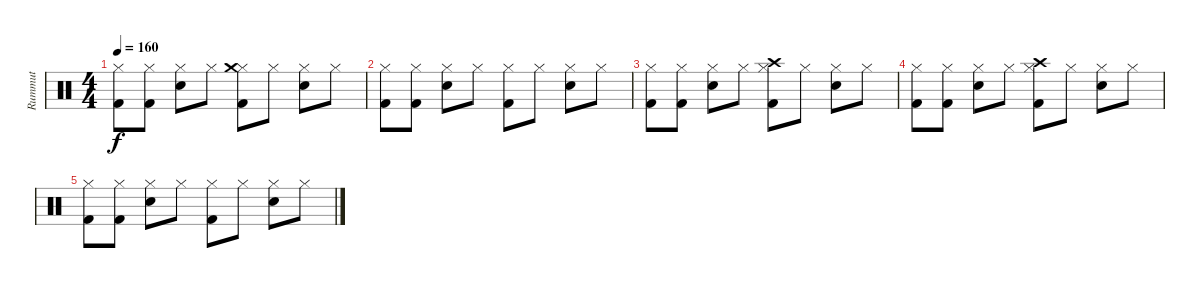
\track ("Rummut" "Rummut") {instrument percussion}
\staff {score}
\articulation defaults
\ts (4 4)
\tempo 160
\clef neutral
\ks c
("Kick (hit) 2" "Hi-Hat (closed)").8{dy f} ("Kick (hit) 2" "Hi-Hat (closed)").8 ("Snare (hit) 2" "Hi-Hat (closed)").8 "Hi-Hat (closed)".8 ("Kick (hit) 2" "Hi-Hat (closed)" "Crash medium (hit)").8 "Hi-Hat (closed)".8 ("Snare (hit) 2" "Hi-Hat (closed)").8 "Hi-Hat (closed)".8 |
("Kick (hit) 2" "Hi-Hat (closed)").8 ("Kick (hit) 2" "Hi-Hat (closed)").8 ("Snare (hit) 2" "Hi-Hat (closed)").8 "Hi-Hat (closed)".8 ("Kick (hit) 2" "Hi-Hat (closed)").8 "Hi-Hat (closed)".8 ("Snare (hit) 2" "Hi-Hat (closed)").8 "Hi-Hat (closed)".8 |
("Kick (hit) 2" "Hi-Hat (closed)").8 ("Kick (hit) 2" "Hi-Hat (closed)").8 ("Snare (hit) 2" "Hi-Hat (closed)").8 "Hi-Hat (closed)".8 ("Crash high (hit)" "Kick (hit) 2" "Hi-Hat (closed)").8 "Hi-Hat (closed)".8 ("Snare (hit) 2" "Hi-Hat (closed)").8 "Hi-Hat (closed)".8 |
("Kick (hit) 2" "Hi-Hat (closed)").8 ("Kick (hit) 2" "Hi-Hat (closed)").8 ("Snare (hit) 2" "Hi-Hat (closed)").8 "Hi-Hat (closed)".8 ("Kick (hit) 2" "Hi-Hat (closed)" "Crash high (hit)").8 "Hi-Hat (closed)".8 ("Snare (hit) 2" "Hi-Hat (closed)").8 "Hi-Hat (closed)".8 |
("Kick (hit) 2" "Hi-Hat (closed)").8 ("Kick (hit) 2" "Hi-Hat (closed)").8 ("Snare (hit) 2" "Hi-Hat (closed)").8 "Hi-Hat (closed)".8 ("Kick (hit) 2" "Hi-Hat (closed)").8 "Hi-Hat (closed)".8 ("Snare (hit) 2" "Hi-Hat (closed)").8 "Hi-Hat (closed)".8
